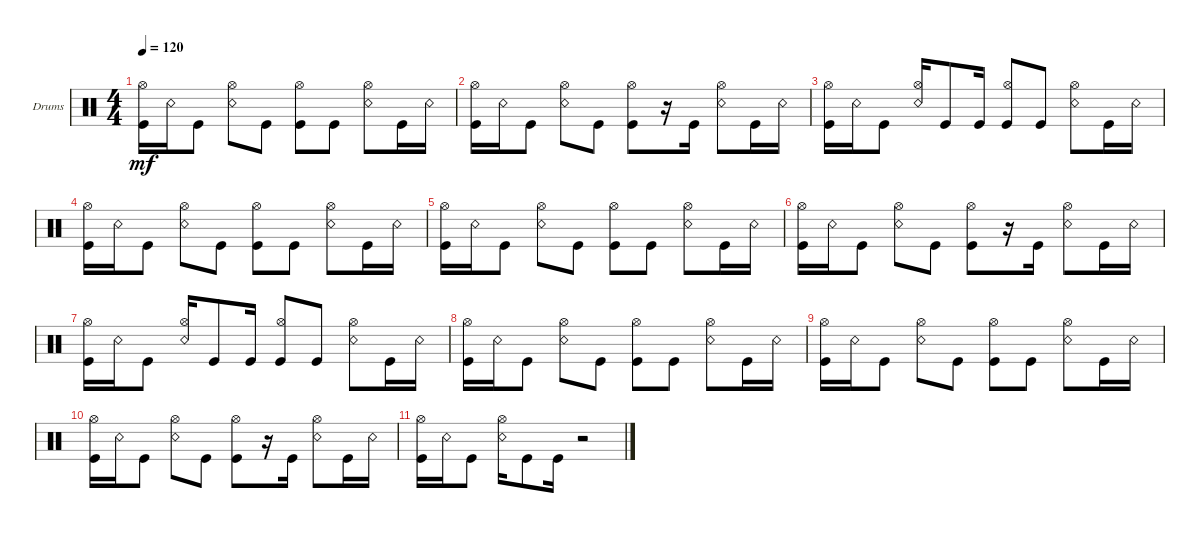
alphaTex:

\defaultSystemsLayout 4
\bracketExtendMode groupsimilarinstruments
\firstSystemTrackNameOrientation horizontal
\otherSystemsTrackNameOrientation horizontal
\track ("Drumkit" "Drums") {instrument percussion}
\staff {score}
\articulation defaults
\ts (4 4)
\tempo 120
\clef neutral
\scale
0.333333
\ks c
("Kick (hit)" "Hi-Hat (open)").16{dy mf} "Snare (rim shot)".16 "Kick (hit)".8 ("Hi-Hat (open)" "Snare (rim shot)").8 "Kick (hit)".8 ("Kick (hit)" "Hi-Hat (open)").8 "Kick (hit)".8 ("Hi-Hat (open)" "Snare (rim shot)").8 "Kick (hit)".16 "Snare (rim shot)".16 |
\scale
0.333333 ("Kick (hit)" "Hi-Hat (open)").16 "Snare (rim shot)".16 "Kick (hit)".8 ("Hi-Hat (open)" "Snare (rim shot)").8 "Kick (hit)".8 ("Kick (hit)" "Hi-Hat (open)").8 r.16 "Kick (hit)".16 ("Hi-Hat (open)" "Snare (rim shot)").8 "Kick (hit)".16 "Snare (rim shot)".16 |
\scale
0.333333 ("Hi-Hat (open)" "Kick (hit)").16 "Snare (rim shot)".16 "Kick (hit)".8 ("Hi-Hat (open)" "Snare (rim shot)").16 "Kick (hit)".8 "Kick (hit)".16 ("Hi-Hat (open)" "Kick (hit)").8{beam invert} "Kick (hit)".8 ("Hi-Hat (open)" "Snare (rim shot)").8 "Kick (hit)".16 "Snare (rim shot)".16 |
\scale
0.333333 ("Kick (hit)" "Hi-Hat (open)").16 "Snare (rim shot)".16 "Kick (hit)".8 ("Hi-Hat (open)" "Snare (rim shot)").8 "Kick (hit)".8 ("Kick (hit)" "Hi-Hat (open)").8 "Kick (hit)".8 ("Hi-Hat (open)" "Snare (rim shot)").8 "Kick (hit)".16 "Snare (rim shot)".16 |
\scale
0.333333 ("Kick (hit)" "Hi-Hat (open)").16 "Snare (rim shot)".16 "Kick (hit)".8 ("Hi-Hat (open)" "Snare (rim shot)").8 "Kick (hit)".8 ("Kick (hit)" "Hi-Hat (open)").8 "Kick (hit)".8 ("Hi-Hat (open)" "Snare (rim shot)").8 "Kick (hit)".16 "Snare (rim shot)".16 |
\scale
0.333333 ("Kick (hit)" "Hi-Hat (open)").16 "Snare (rim shot)".16 "Kick (hit)".8 ("Hi-Hat (open)" "Snare (rim shot)").8 "Kick (hit)".8 ("Kick (hit)" "Hi-Hat (open)").8 r.16 "Kick (hit)".16 ("Hi-Hat (open)" "Snare (rim shot)").8 "Kick (hit)".16 "Snare (rim shot)".16 |
\scale
0.333333 ("Hi-Hat (open)" "Kick (hit)").16 "Snare (rim shot)".16 "Kick (hit)".8 ("Hi-Hat (open)" "Snare (rim shot)").16 "Kick (hit)".8 "Kick (hit)".16 ("Hi-Hat (open)" "Kick (hit)").8{beam invert} "Kick (hit)".8 ("Hi-Hat (open)" "Snare (rim shot)").8 "Kick (hit)".16 "Snare (rim shot)".16 |
\scale
0.333333 ("Kick (hit)" "Hi-Hat (open)").16 "Snare (rim shot)".16 "Kick (hit)".8 ("Hi-Hat (open)" "Snare (rim shot)").8 "Kick (hit)".8 ("Kick (hit)" "Hi-Hat (open)").8 "Kick (hit)".8 ("Hi-Hat (open)" "Snare (rim shot)").8 "Kick (hit)".16 "Snare (rim shot)".16 |
\scale
0.333333 ("Kick (hit)" "Hi-Hat (open)").16 "Snare (rim shot)".16 "Kick (hit)".8 ("Hi-Hat (open)" "Snare (rim shot)").8 "Kick (hit)".8 ("Kick (hit)" "Hi-Hat (open)").8 "Kick (hit)".8 ("Hi-Hat (open)" "Snare (rim shot)").8 "Kick (hit)".16 "Snare (rim shot)".16 |
\scale
0.333333 ("Kick (hit)" "Hi-Hat (open)").16 "Snare (rim shot)".16 "Kick (hit)".8 ("Hi-Hat (open)" "Snare (rim shot)").8 "Kick (hit)".8 ("Kick (hit)" "Hi-Hat (open)").8 r.16 "Kick (hit)".16 ("Hi-Hat (open)" "Snare (rim shot)").8 "Kick (hit)".16 "Snare (rim shot)".16 |
\scale
0.333333 ("Kick (hit)" "Hi-Hat (open)").16 "Snare (rim shot)".16 "Kick (hit)".8 ("Hi-Hat (open)" "Snare (rim shot)").16 "Kick (hit)".8 "Kick (hit)".16 r.2 |
\scale
0.333333 |
\scale
0.333333 |
\scale
0.333333 |
\scale
0.333333 |
\scale
0.333333
